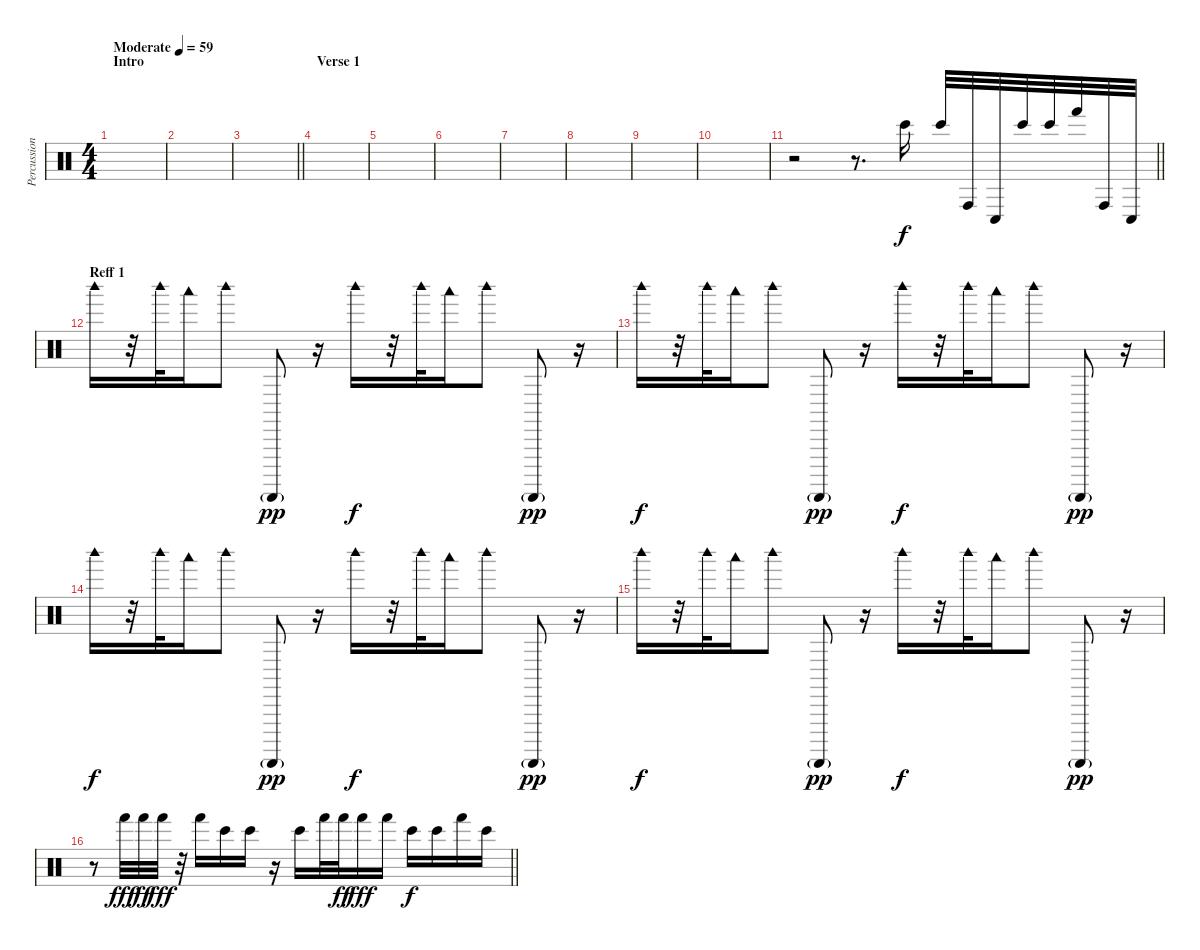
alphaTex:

\track ("Percussion 2" "Percussion") {instrument percussion}
\staff {score}
\articulation defaults
\ts (4 4)
\section ("" "Intro")
\tempo (59 "Moderate")
\clef neutral
\ks c
|
|
\barLineRight lightlight
|
\section ("" "Verse 1")
|
|
|
|
|
|
|
\barLineRight lightlight
r.2 r.8{d} "Bongo High (hit)".16 "Bongo High (hit)".32 "Conga high (hit)".32 "Conga low (hit)".32 "Bongo High (hit)".32 "Bongo High (hit)".32 "Hand (hit)".32 "Conga high (hit)".32 "Conga low (hit)".32 |
\section ("" "Reff 1")
"Woodblock high (hit)".16 r.32 "Woodblock high (hit)".32 "Woodblock low (hit)".16 "Woodblock high (hit)".8 "Guiro (scrap-return)"{g}.8{dy pp} r.16 "Woodblock high (hit)".16{dy f} r.32 "Woodblock high (hit)".32 "Woodblock low (hit)".16 "Woodblock high (hit)".8 "Guiro (scrap-return)"{g}.8{dy pp} r.16 |
"Woodblock high (hit)".16{dy f} r.32 "Woodblock high (hit)".32 "Woodblock low (hit)".16 "Woodblock high (hit)".8 "Guiro (scrap-return)"{g}.8{dy pp} r.16 "Woodblock high (hit)".16{dy f} r.32 "Woodblock high (hit)".32 "Woodblock low (hit)".16 "Woodblock high (hit)".8 "Guiro (scrap-return)"{g}.8{dy pp} r.16 |
"Woodblock high (hit)".16{dy f} r.32 "Woodblock high (hit)".32 "Woodblock low (hit)".16 "Woodblock high (hit)".8 "Guiro (scrap-return)"{g}.8{dy pp} r.16 "Woodblock high (hit)".16{dy f} r.32 "Woodblock high (hit)".32 "Woodblock low (hit)".16 "Woodblock high (hit)".8 "Guiro (scrap-return)"{g}.8{dy pp} r.16 |
"Woodblock high (hit)".16{dy f} r.32 "Woodblock high (hit)".32 "Woodblock low (hit)".16 "Woodblock high (hit)".8 "Guiro (scrap-return)"{g}.8{dy pp} r.16 "Woodblock high (hit)".16{dy f} r.32 "Woodblock high (hit)".32 "Woodblock low (hit)".16 "Woodblock high (hit)".8 "Guiro (scrap-return)"{g}.8{dy pp} r.16 |
\barLineRight lightlight
r.8 "Hand (hit)".32{dy fff} "Hand (hit)".32{dy ff} "Hand (hit)".32{dy fff} r.32 "Hand (hit)".16 "Bongo High (hit)".16 "Bongo High (hit)".16 r.16 "Bongo High (hit)".16 "Hand (hit)".32 "Hand (hit)".32{dy ff} "Hand (hit)".16{dy fff} "Hand (hit)".16 "Bongo High (hit)".16{dy f} "Bongo High (hit)".16 "Hand (hit)".16 "Bongo High (hit)".16
